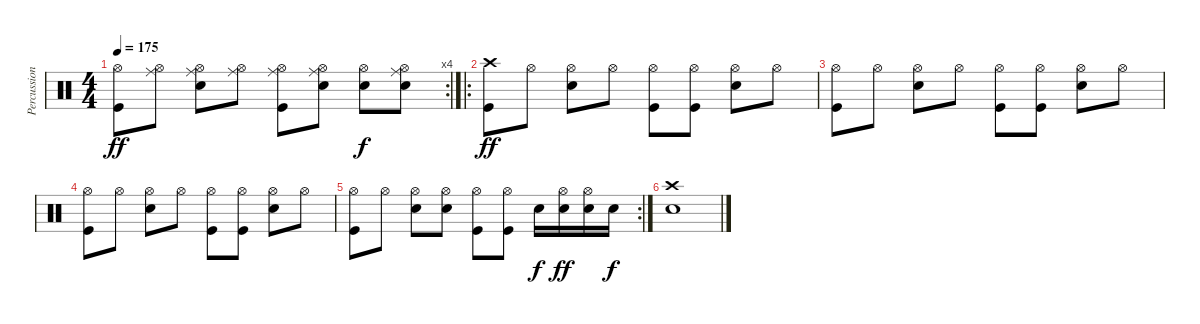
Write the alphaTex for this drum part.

\track ("Percussioni" "Percussion") {instrument percussion}
\staff {score}
\articulation defaults
\rc 4
\ts (4 4)
\tempo 175
\clef neutral
\ks c
("Hi-Hat (open)" "Kick (hit)").8{dy ff} ("Hi-Hat (open)" "Ride (middle)").8 ("Hi-Hat (open)" "Ride (middle)" "Electric Snare (hit)").8 ("Hi-Hat (open)" "Ride (middle)").8 ("Hi-Hat (open)" "Ride (middle)" "Kick (hit)").8 ("Hi-Hat (open)" "Ride (middle)" "Electric Snare (hit)").8 ("Hi-Hat (open)" "Electric Snare (hit)").8{dy f} ("Hi-Hat (open)" "Ride (middle)" "Electric Snare (hit)").8 |
\ro
("Crash high (hit)" "Kick (hit)").8{dy ff} "Hi-Hat (open)".8 ("Hi-Hat (open)" "Electric Snare (hit)").8 "Hi-Hat (open)".8 ("Hi-Hat (open)" "Kick (hit)").8 ("Hi-Hat (open)" "Kick (hit)").8 ("Hi-Hat (open)" "Electric Snare (hit)").8 "Hi-Hat (open)".8 |
("Hi-Hat (open)" "Kick (hit)").8 "Hi-Hat (open)".8 ("Hi-Hat (open)" "Electric Snare (hit)").8 "Hi-Hat (open)".8 ("Hi-Hat (open)" "Kick (hit)").8 ("Hi-Hat (open)" "Kick (hit)").8 ("Hi-Hat (open)" "Electric Snare (hit)").8 "Hi-Hat (open)".8 |
("Hi-Hat (open)" "Kick (hit)").8 "Hi-Hat (open)".8 ("Hi-Hat (open)" "Electric Snare (hit)").8 "Hi-Hat (open)".8 ("Hi-Hat (open)" "Kick (hit)").8 ("Hi-Hat (open)" "Kick (hit)").8 ("Hi-Hat (open)" "Electric Snare (hit)").8 "Hi-Hat (open)".8 |
\rc 2
("Hi-Hat (open)" "Kick (hit)").8 "Hi-Hat (open)".8 ("Hi-Hat (open)" "Electric Snare (hit)").8 ("Hi-Hat (open)" "Electric Snare (hit)").8 ("Hi-Hat (open)" "Kick (hit)").8 ("Hi-Hat (open)" "Kick (hit)").8 "Electric Snare (hit)".16{dy f} ("Hi-Hat (open)" "Electric Snare (hit)").16{dy ff} ("Hi-Hat (open)" "Electric Snare (hit)").16 "Electric Snare (hit)".16{dy f} |
("Crash high (hit)" "Electric Snare (hit)").1
